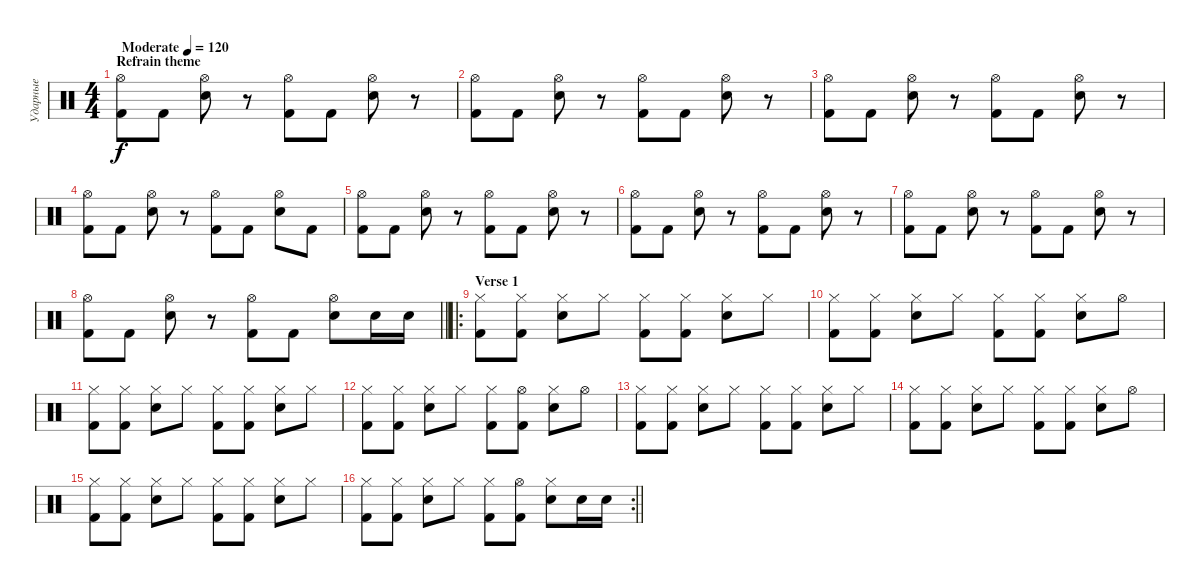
\track ("Ударные" "Ударные") {instrument percussion}
\staff {score}
\articulation defaults
\ts (4 4)
\section ("" "Refrain theme")
\tempo (120 "Moderate")
\clef neutral
\ks c
("Hi-Hat (open)" "Kick (hit) 2").8{dy f} "Kick (hit) 2".8 ("Hi-Hat (open)" "Electric Snare (hit)").8 r.8 ("Hi-Hat (open)" "Kick (hit) 2").8 "Kick (hit) 2".8 ("Hi-Hat (open)" "Electric Snare (hit)").8 r.8 |
("Hi-Hat (open)" "Kick (hit) 2").8 "Kick (hit) 2".8 ("Hi-Hat (open)" "Electric Snare (hit)").8 r.8 ("Hi-Hat (open)" "Kick (hit) 2").8 "Kick (hit) 2".8 ("Hi-Hat (open)" "Electric Snare (hit)").8 r.8 |
("Hi-Hat (open)" "Kick (hit) 2").8 "Kick (hit) 2".8 ("Hi-Hat (open)" "Electric Snare (hit)").8 r.8 ("Hi-Hat (open)" "Kick (hit) 2").8 "Kick (hit) 2".8 ("Hi-Hat (open)" "Electric Snare (hit)").8 r.8 |
("Hi-Hat (open)" "Kick (hit) 2").8 "Kick (hit) 2".8 ("Hi-Hat (open)" "Electric Snare (hit)").8 r.8 ("Hi-Hat (open)" "Kick (hit) 2").8 "Kick (hit) 2".8 ("Hi-Hat (open)" "Electric Snare (hit)").8 "Kick (hit) 2".8 |
("Hi-Hat (open)" "Kick (hit) 2").8 "Kick (hit) 2".8 ("Hi-Hat (open)" "Electric Snare (hit)").8 r.8 ("Hi-Hat (open)" "Kick (hit) 2").8 "Kick (hit) 2".8 ("Hi-Hat (open)" "Electric Snare (hit)").8 r.8 |
("Hi-Hat (open)" "Kick (hit) 2").8 "Kick (hit) 2".8 ("Hi-Hat (open)" "Electric Snare (hit)").8 r.8 ("Hi-Hat (open)" "Kick (hit) 2").8 "Kick (hit) 2".8 ("Hi-Hat (open)" "Electric Snare (hit)").8 r.8 |
("Hi-Hat (open)" "Kick (hit) 2").8 "Kick (hit) 2".8 ("Hi-Hat (open)" "Electric Snare (hit)").8 r.8 ("Hi-Hat (open)" "Kick (hit) 2").8 "Kick (hit) 2".8 ("Hi-Hat (open)" "Electric Snare (hit)").8 r.8 |
\barLineRight lightlight
("Hi-Hat (open)" "Kick (hit) 2").8 "Kick (hit) 2".8 ("Hi-Hat (open)" "Electric Snare (hit)").8 r.8 ("Hi-Hat (open)" "Kick (hit) 2").8 "Kick (hit) 2".8 ("Hi-Hat (open)" "Electric Snare (hit)").8 "Electric Snare (hit)".16 "Electric Snare (hit)".16 |
\ro
\section ("" "Verse 1")
("Hi-Hat (closed)" "Kick (hit) 2").8 ("Hi-Hat (closed)" "Kick (hit) 2").8 ("Hi-Hat (closed)" "Electric Snare (hit)").8 "Hi-Hat (closed)".8 ("Hi-Hat (closed)" "Kick (hit) 2").8 ("Hi-Hat (closed)" "Kick (hit) 2").8 ("Hi-Hat (closed)" "Electric Snare (hit)").8 "Hi-Hat (closed)".8 |
("Hi-Hat (closed)" "Kick (hit) 2").8 ("Hi-Hat (closed)" "Kick (hit) 2").8 ("Hi-Hat (closed)" "Electric Snare (hit)").8 "Hi-Hat (closed)".8 ("Hi-Hat (closed)" "Kick (hit) 2").8 ("Hi-Hat (closed)" "Kick (hit) 2").8 ("Hi-Hat (closed)" "Electric Snare (hit)").8 "Hi-Hat (open)".8 |
("Hi-Hat (closed)" "Kick (hit) 2").8 ("Hi-Hat (closed)" "Kick (hit) 2").8 ("Hi-Hat (closed)" "Electric Snare (hit)").8 "Hi-Hat (closed)".8 ("Hi-Hat (closed)" "Kick (hit) 2").8 ("Hi-Hat (closed)" "Kick (hit) 2").8 ("Hi-Hat (closed)" "Electric Snare (hit)").8 "Hi-Hat (closed)".8 |
("Hi-Hat (closed)" "Kick (hit) 2").8 ("Hi-Hat (closed)" "Kick (hit) 2").8 ("Hi-Hat (closed)" "Electric Snare (hit)").8 "Hi-Hat (closed)".8 ("Hi-Hat (closed)" "Kick (hit) 2").8 ("Hi-Hat (open)" "Kick (hit) 2").8 ("Hi-Hat (closed)" "Electric Snare (hit)").8 "Hi-Hat (open)".8 |
("Hi-Hat (closed)" "Kick (hit) 2").8 ("Hi-Hat (closed)" "Kick (hit) 2").8 ("Hi-Hat (closed)" "Electric Snare (hit)").8 "Hi-Hat (closed)".8 ("Hi-Hat (closed)" "Kick (hit) 2").8 ("Hi-Hat (closed)" "Kick (hit) 2").8 ("Hi-Hat (closed)" "Electric Snare (hit)").8 "Hi-Hat (closed)".8 |
("Hi-Hat (closed)" "Kick (hit) 2").8 ("Hi-Hat (closed)" "Kick (hit) 2").8 ("Hi-Hat (closed)" "Electric Snare (hit)").8 "Hi-Hat (closed)".8 ("Hi-Hat (closed)" "Kick (hit) 2").8 ("Hi-Hat (closed)" "Kick (hit) 2").8 ("Hi-Hat (closed)" "Electric Snare (hit)").8 "Hi-Hat (open)".8 |
("Hi-Hat (closed)" "Kick (hit) 2").8 ("Hi-Hat (closed)" "Kick (hit) 2").8 ("Hi-Hat (closed)" "Electric Snare (hit)").8 "Hi-Hat (closed)".8 ("Hi-Hat (closed)" "Kick (hit) 2").8 ("Hi-Hat (closed)" "Kick (hit) 2").8 ("Hi-Hat (closed)" "Electric Snare (hit)").8 "Hi-Hat (closed)".8 |
\rc 2
\barLineRight lightlight
("Hi-Hat (closed)" "Kick (hit) 2").8 ("Hi-Hat (closed)" "Kick (hit) 2").8 ("Hi-Hat (closed)" "Electric Snare (hit)").8 "Hi-Hat (closed)".8 ("Hi-Hat (closed)" "Kick (hit) 2").8 ("Hi-Hat (open)" "Kick (hit) 2").8 ("Hi-Hat (closed)" "Electric Snare (hit)").8 "Electric Snare (hit)".16 "Electric Snare (hit)".16
